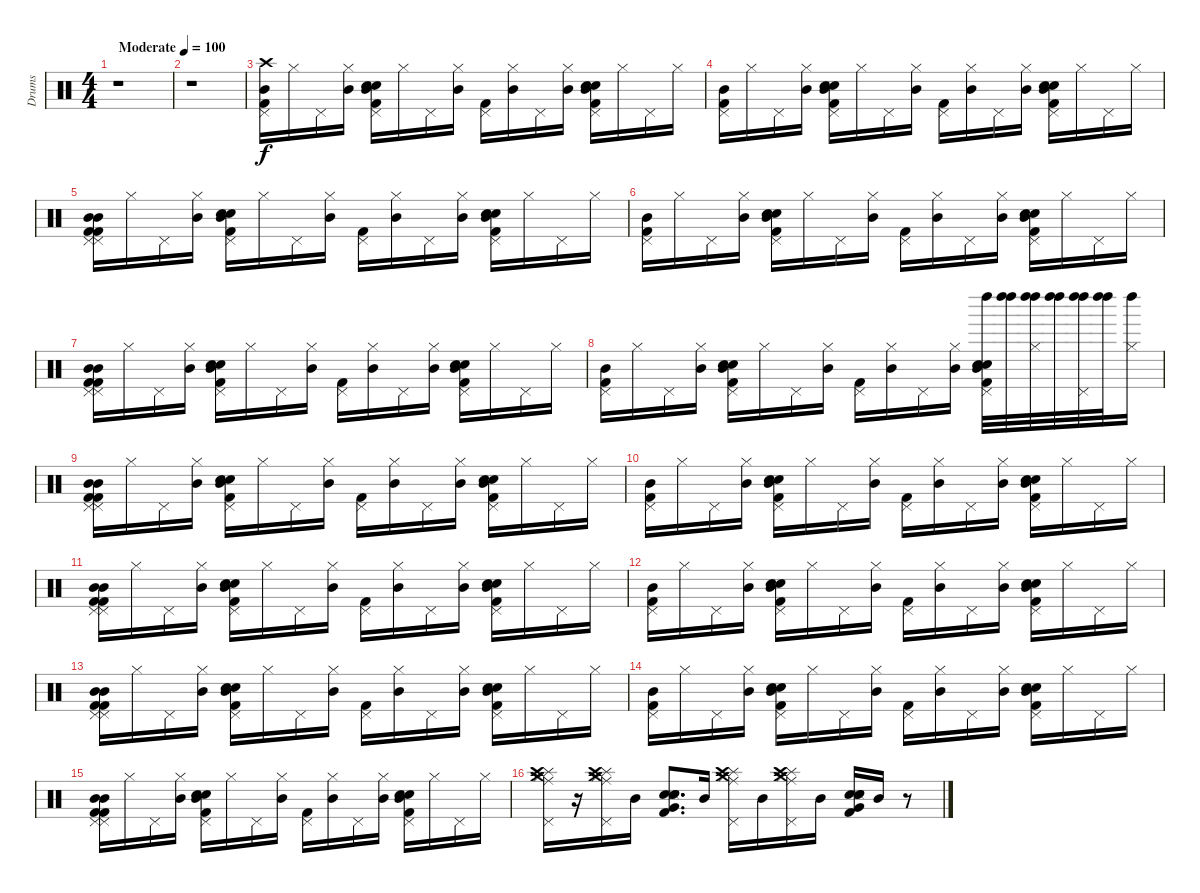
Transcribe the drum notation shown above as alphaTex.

\track ("Drums" "Drums") {instrument percussion}
\staff {score}
\articulation defaults
\ts (4 4)
\tempo (100 "Moderate")
\clef neutral
\ks c
r.1{dy f} |
r.1 |
("Pedal Hi-Hat (hit)" "Kick (hit) 2" "Mid Tom (hit)" "Crash high (hit)").16 "Hi-Hat (closed)".16 "Pedal Hi-Hat (hit)".16 ("Hi-Hat (closed)" "Mid Tom (hit)").16 ("Pedal Hi-Hat (hit)" "Electric Snare (hit)" "Snare (hit) 2" "Kick (hit) 2" "Mid Tom (hit)").16 "Hi-Hat (closed)".16 "Pedal Hi-Hat (hit)".16 ("Hi-Hat (closed)" "Mid Tom (hit)").16 ("Pedal Hi-Hat (hit)" "Kick (hit) 2").16 ("Hi-Hat (closed)" "Mid Tom (hit)").16 "Pedal Hi-Hat (hit)".16 ("Hi-Hat (closed)" "Mid Tom (hit)").16 ("Pedal Hi-Hat (hit)" "Snare (hit) 2" "Electric Snare (hit)" "Kick (hit) 2" "Mid Tom (hit)").16 "Hi-Hat (closed)".16 "Pedal Hi-Hat (hit)".16 "Hi-Hat (closed)".16 |
("Pedal Hi-Hat (hit)" "Kick (hit) 2" "Mid Tom (hit)").16 "Hi-Hat (closed)".16 "Pedal Hi-Hat (hit)".16 ("Hi-Hat (closed)" "Mid Tom (hit)").16 ("Pedal Hi-Hat (hit)" "Snare (hit) 2" "Electric Snare (hit)" "Kick (hit) 2" "Mid Tom (hit)").16 "Hi-Hat (closed)".16 "Pedal Hi-Hat (hit)".16 ("Hi-Hat (closed)" "Mid Tom (hit)").16 ("Pedal Hi-Hat (hit)" "Kick (hit) 2").16 ("Hi-Hat (closed)" "Mid Tom (hit)").16 "Pedal Hi-Hat (hit)".16 ("Hi-Hat (closed)" "Mid Tom (hit)").16 ("Pedal Hi-Hat (hit)" "Snare (hit) 2" "Electric Snare (hit)" "Kick (hit) 2" "Mid Tom (hit)").16 "Hi-Hat (closed)".16 "Pedal Hi-Hat (hit)".16 "Hi-Hat (closed)".16 |
("Pedal Hi-Hat (hit)" "Kick (hit) 2" "Mid Tom (hit)" "Pedal Hi-Hat (hit)" "Kick (hit) 2" "Mid Tom (hit)").16 "Hi-Hat (closed)".16 "Pedal Hi-Hat (hit)".16 ("Hi-Hat (closed)" "Mid Tom (hit)").16 ("Pedal Hi-Hat (hit)" "Electric Snare (hit)" "Snare (hit) 2" "Kick (hit) 2" "Mid Tom (hit)").16 "Hi-Hat (closed)".16 "Pedal Hi-Hat (hit)".16 ("Hi-Hat (closed)" "Mid Tom (hit)").16 ("Pedal Hi-Hat (hit)" "Kick (hit) 2").16 ("Hi-Hat (closed)" "Mid Tom (hit)").16 "Pedal Hi-Hat (hit)".16 ("Hi-Hat (closed)" "Mid Tom (hit)").16 ("Pedal Hi-Hat (hit)" "Snare (hit) 2" "Electric Snare (hit)" "Kick (hit) 2" "Mid Tom (hit)").16 "Hi-Hat (closed)".16 "Pedal Hi-Hat (hit)".16 "Hi-Hat (closed)".16 |
("Pedal Hi-Hat (hit)" "Kick (hit) 2" "Mid Tom (hit)").16 "Hi-Hat (closed)".16 "Pedal Hi-Hat (hit)".16 ("Hi-Hat (closed)" "Mid Tom (hit)").16 ("Pedal Hi-Hat (hit)" "Snare (hit) 2" "Electric Snare (hit)" "Kick (hit) 2" "Mid Tom (hit)").16 "Hi-Hat (closed)".16 "Pedal Hi-Hat (hit)".16 ("Hi-Hat (closed)" "Mid Tom (hit)").16 ("Pedal Hi-Hat (hit)" "Kick (hit) 2").16 ("Hi-Hat (closed)" "Mid Tom (hit)").16 "Pedal Hi-Hat (hit)".16 ("Hi-Hat (closed)" "Mid Tom (hit)").16 ("Pedal Hi-Hat (hit)" "Snare (hit) 2" "Electric Snare (hit)" "Kick (hit) 2" "Mid Tom (hit)").16 "Hi-Hat (closed)".16 "Pedal Hi-Hat (hit)".16 "Hi-Hat (closed)".16 |
("Pedal Hi-Hat (hit)" "Kick (hit) 2" "Mid Tom (hit)" "Pedal Hi-Hat (hit)" "Kick (hit) 2" "Mid Tom (hit)").16 "Hi-Hat (closed)".16 "Pedal Hi-Hat (hit)".16 ("Hi-Hat (closed)" "Mid Tom (hit)").16 ("Pedal Hi-Hat (hit)" "Electric Snare (hit)" "Snare (hit) 2" "Kick (hit) 2" "Mid Tom (hit)").16 "Hi-Hat (closed)".16 "Pedal Hi-Hat (hit)".16 ("Hi-Hat (closed)" "Mid Tom (hit)").16 ("Pedal Hi-Hat (hit)" "Kick (hit) 2").16 ("Hi-Hat (closed)" "Mid Tom (hit)").16 "Pedal Hi-Hat (hit)".16 ("Hi-Hat (closed)" "Mid Tom (hit)").16 ("Pedal Hi-Hat (hit)" "Snare (hit) 2" "Electric Snare (hit)" "Kick (hit) 2" "Mid Tom (hit)").16 "Hi-Hat (closed)".16 "Pedal Hi-Hat (hit)".16 "Hi-Hat (closed)".16 |
("Pedal Hi-Hat (hit)" "Kick (hit) 2" "Mid Tom (hit)").16 "Hi-Hat (closed)".16 "Pedal Hi-Hat (hit)".16 ("Hi-Hat (closed)" "Mid Tom (hit)").16 ("Pedal Hi-Hat (hit)" "Snare (hit) 2" "Electric Snare (hit)" "Kick (hit) 2" "Mid Tom (hit)").16 "Hi-Hat (closed)".16 "Pedal Hi-Hat (hit)".16 ("Hi-Hat (closed)" "Mid Tom (hit)").16 ("Pedal Hi-Hat (hit)" "Kick (hit) 2").16 ("Hi-Hat (closed)" "Mid Tom (hit)").16 "Pedal Hi-Hat (hit)".16 ("Hi-Hat (closed)" "Mid Tom (hit)").16 ("Pedal Hi-Hat (hit)" "Snare (hit) 2" "Electric Snare (hit)" "Mid Tom (hit)" "Kick (hit) 2" "Left Maraca (hit)").32 ("Left Maraca (hit)" "Left Maraca (hit)").32 ("Hi-Hat (closed)" "Left Maraca (hit)" "Left Maraca (hit)").32 ("Left Maraca (hit)" "Left Maraca (hit)").32 ("Pedal Hi-Hat (hit)" "Left Maraca (hit)" "Left Maraca (hit)").32 ("Left Maraca (hit)" "Left Maraca (hit)").32 ("Hi-Hat (closed)" "Left Maraca (hit)").16 |
("Pedal Hi-Hat (hit)" "Kick (hit) 2" "Mid Tom (hit)" "Pedal Hi-Hat (hit)" "Kick (hit) 2" "Mid Tom (hit)").16 "Hi-Hat (closed)".16 "Pedal Hi-Hat (hit)".16 ("Hi-Hat (closed)" "Mid Tom (hit)").16 ("Pedal Hi-Hat (hit)" "Electric Snare (hit)" "Snare (hit) 2" "Kick (hit) 2" "Mid Tom (hit)").16 "Hi-Hat (closed)".16 "Pedal Hi-Hat (hit)".16 ("Hi-Hat (closed)" "Mid Tom (hit)").16 ("Pedal Hi-Hat (hit)" "Kick (hit) 2").16 ("Hi-Hat (closed)" "Mid Tom (hit)").16 "Pedal Hi-Hat (hit)".16 ("Hi-Hat (closed)" "Mid Tom (hit)").16 ("Pedal Hi-Hat (hit)" "Snare (hit) 2" "Electric Snare (hit)" "Kick (hit) 2" "Mid Tom (hit)").16 "Hi-Hat (closed)".16 "Pedal Hi-Hat (hit)".16 "Hi-Hat (closed)".16 |
("Pedal Hi-Hat (hit)" "Kick (hit) 2" "Mid Tom (hit)").16 "Hi-Hat (closed)".16 "Pedal Hi-Hat (hit)".16 ("Hi-Hat (closed)" "Mid Tom (hit)").16 ("Pedal Hi-Hat (hit)" "Snare (hit) 2" "Electric Snare (hit)" "Kick (hit) 2" "Mid Tom (hit)").16 "Hi-Hat (closed)".16 "Pedal Hi-Hat (hit)".16 ("Hi-Hat (closed)" "Mid Tom (hit)").16 ("Pedal Hi-Hat (hit)" "Kick (hit) 2").16 ("Hi-Hat (closed)" "Mid Tom (hit)").16 "Pedal Hi-Hat (hit)".16 ("Hi-Hat (closed)" "Mid Tom (hit)").16 ("Pedal Hi-Hat (hit)" "Snare (hit) 2" "Electric Snare (hit)" "Kick (hit) 2" "Mid Tom (hit)").16 "Hi-Hat (closed)".16 "Pedal Hi-Hat (hit)".16 "Hi-Hat (closed)".16 |
("Pedal Hi-Hat (hit)" "Kick (hit) 2" "Mid Tom (hit)" "Pedal Hi-Hat (hit)" "Kick (hit) 2" "Mid Tom (hit)").16 "Hi-Hat (closed)".16 "Pedal Hi-Hat (hit)".16 ("Hi-Hat (closed)" "Mid Tom (hit)").16 ("Pedal Hi-Hat (hit)" "Electric Snare (hit)" "Snare (hit) 2" "Kick (hit) 2" "Mid Tom (hit)").16 "Hi-Hat (closed)".16 "Pedal Hi-Hat (hit)".16 ("Hi-Hat (closed)" "Mid Tom (hit)").16 ("Pedal Hi-Hat (hit)" "Kick (hit) 2").16 ("Hi-Hat (closed)" "Mid Tom (hit)").16 "Pedal Hi-Hat (hit)".16 ("Hi-Hat (closed)" "Mid Tom (hit)").16 ("Pedal Hi-Hat (hit)" "Snare (hit) 2" "Electric Snare (hit)" "Kick (hit) 2" "Mid Tom (hit)").16 "Hi-Hat (closed)".16 "Pedal Hi-Hat (hit)".16 "Hi-Hat (closed)".16 |
("Pedal Hi-Hat (hit)" "Kick (hit) 2" "Mid Tom (hit)").16 "Hi-Hat (closed)".16 "Pedal Hi-Hat (hit)".16 ("Hi-Hat (closed)" "Mid Tom (hit)").16 ("Pedal Hi-Hat (hit)" "Snare (hit) 2" "Electric Snare (hit)" "Kick (hit) 2" "Mid Tom (hit)").16 "Hi-Hat (closed)".16 "Pedal Hi-Hat (hit)".16 ("Hi-Hat (closed)" "Mid Tom (hit)").16 ("Pedal Hi-Hat (hit)" "Kick (hit) 2").16 ("Hi-Hat (closed)" "Mid Tom (hit)").16 "Pedal Hi-Hat (hit)".16 ("Hi-Hat (closed)" "Mid Tom (hit)").16 ("Pedal Hi-Hat (hit)" "Snare (hit) 2" "Electric Snare (hit)" "Kick (hit) 2" "Mid Tom (hit)").16 "Hi-Hat (closed)".16 "Pedal Hi-Hat (hit)".16 "Hi-Hat (closed)".16 |
("Pedal Hi-Hat (hit)" "Kick (hit) 2" "Mid Tom (hit)" "Pedal Hi-Hat (hit)" "Kick (hit) 2" "Mid Tom (hit)").16 "Hi-Hat (closed)".16 "Pedal Hi-Hat (hit)".16 ("Hi-Hat (closed)" "Mid Tom (hit)").16 ("Pedal Hi-Hat (hit)" "Electric Snare (hit)" "Snare (hit) 2" "Kick (hit) 2" "Mid Tom (hit)").16 "Hi-Hat (closed)".16 "Pedal Hi-Hat (hit)".16 ("Hi-Hat (closed)" "Mid Tom (hit)").16 ("Pedal Hi-Hat (hit)" "Kick (hit) 2").16 ("Hi-Hat (closed)" "Mid Tom (hit)").16 "Pedal Hi-Hat (hit)".16 ("Hi-Hat (closed)" "Mid Tom (hit)").16 ("Pedal Hi-Hat (hit)" "Snare (hit) 2" "Electric Snare (hit)" "Kick (hit) 2" "Mid Tom (hit)").16 "Hi-Hat (closed)".16 "Pedal Hi-Hat (hit)".16 "Hi-Hat (closed)".16 |
("Pedal Hi-Hat (hit)" "Kick (hit) 2" "Mid Tom (hit)").16 "Hi-Hat (closed)".16 "Pedal Hi-Hat (hit)".16 ("Hi-Hat (closed)" "Mid Tom (hit)").16 ("Pedal Hi-Hat (hit)" "Snare (hit) 2" "Electric Snare (hit)" "Kick (hit) 2" "Mid Tom (hit)").16 "Hi-Hat (closed)".16 "Pedal Hi-Hat (hit)".16 ("Hi-Hat (closed)" "Mid Tom (hit)").16 ("Pedal Hi-Hat (hit)" "Kick (hit) 2").16 ("Hi-Hat (closed)" "Mid Tom (hit)").16 "Pedal Hi-Hat (hit)".16 ("Hi-Hat (closed)" "Mid Tom (hit)").16 ("Pedal Hi-Hat (hit)" "Snare (hit) 2" "Electric Snare (hit)" "Kick (hit) 2" "Mid Tom (hit)").16 "Hi-Hat (closed)".16 "Pedal Hi-Hat (hit)".16 "Hi-Hat (closed)".16 |
("Pedal Hi-Hat (hit)" "Kick (hit) 2" "Mid Tom (hit)" "Pedal Hi-Hat (hit)" "Kick (hit) 2" "Mid Tom (hit)").16 "Hi-Hat (closed)".16 "Pedal Hi-Hat (hit)".16 ("Hi-Hat (closed)" "Mid Tom (hit)").16 ("Pedal Hi-Hat (hit)" "Electric Snare (hit)" "Snare (hit) 2" "Kick (hit) 2" "Mid Tom (hit)").16 "Hi-Hat (closed)".16 "Pedal Hi-Hat (hit)".16 ("Hi-Hat (closed)" "Mid Tom (hit)").16 ("Pedal Hi-Hat (hit)" "Kick (hit) 2").16 ("Hi-Hat (closed)" "Mid Tom (hit)").16 "Pedal Hi-Hat (hit)".16 ("Hi-Hat (closed)" "Mid Tom (hit)").16 ("Pedal Hi-Hat (hit)" "Snare (hit) 2" "Electric Snare (hit)" "Kick (hit) 2" "Mid Tom (hit)").16 "Hi-Hat (closed)".16 "Pedal Hi-Hat (hit)".16 "Hi-Hat (closed)".16 |
("Pedal Hi-Hat (hit)" "Hi-Hat (closed)" "Ride (middle)" "Splash (hit)" "Crash high (hit)" "Crash medium (hit)").16 r.16 ("Hi-Hat (closed)" "Pedal Hi-Hat (hit)" "Ride (middle)" "Splash (hit)" "Crash high (hit)" "Crash medium (hit)").16 "Mid Tom (hit)".16 ("Snare (hit) 2" "Kick (hit) 2" "Electric Snare (hit)" "Hand Clap (hit)" "Snare (side stick) 3" "Very Low Tom (hit)").8{d} "Mid Tom (hit)".16 ("Hi-Hat (closed)" "Pedal Hi-Hat (hit)" "Ride (middle)" "Splash (hit)" "Crash high (hit)" "Crash medium (hit)").16 "Mid Tom (hit)".16 ("Hi-Hat (closed)" "Pedal Hi-Hat (hit)" "Ride (middle)" "Splash (hit)" "Crash high (hit)" "Crash medium (hit)").16 "Mid Tom (hit)".16 ("Kick (hit) 2" "Snare (hit) 2" "Electric Snare (hit)" "Hand Clap (hit)" "Snare (side stick) 3" "Very Low Tom (hit)").16 "Mid Tom (hit)".16 r.8
